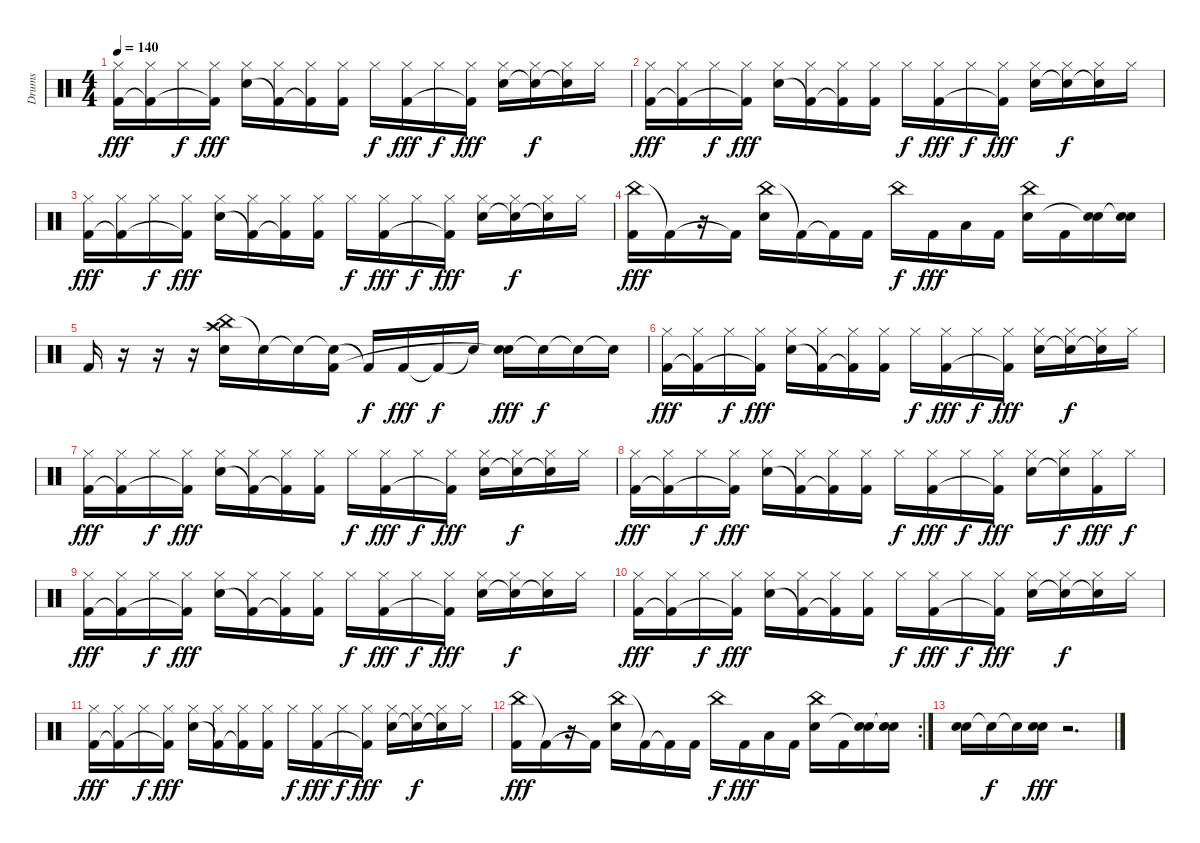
\track ("Drums" "Drums") {instrument percussion}
\staff {score}
\articulation defaults
\ts (4 4)
\tempo 140
\clef neutral
\ks c
("Hi-Hat (closed)" "Kick (hit) 2").16{dy fff} ("Hi-Hat (closed)" "Kick (hit) 2"{t}).16 "Hi-Hat (closed)".16{dy f} ("Hi-Hat (closed)" "Kick (hit) 2"{t}).16{dy fff} ("Hi-Hat (closed)" "Snare (hit) 2").16 ("Hi-Hat (closed)" "Kick (hit) 2"{t}).16 ("Hi-Hat (closed)" "Kick (hit) 2"{t}).16 ("Hi-Hat (closed)" "Kick (hit) 2").16 "Hi-Hat (closed)".16{dy f} ("Hi-Hat (closed)" "Kick (hit) 2").16{dy fff} "Hi-Hat (closed)".16{dy f} ("Hi-Hat (closed)" "Kick (hit) 2"{t}).16{dy fff} ("Hi-Hat (closed)" "Snare (hit) 2").16 ("Hi-Hat (closed)" "Snare (hit)"{t}).16{dy f} ("Hi-Hat (closed)" "Snare (hit)"{t}).16 "Hi-Hat (closed)".16 |
("Hi-Hat (closed)" "Kick (hit) 2").16{dy fff} ("Hi-Hat (closed)" "Kick (hit) 2"{t}).16 "Hi-Hat (closed)".16{dy f} ("Hi-Hat (closed)" "Kick (hit) 2"{t}).16{dy fff} ("Hi-Hat (closed)" "Snare (hit) 2").16 ("Hi-Hat (closed)" "Kick (hit) 2"{t}).16 ("Hi-Hat (closed)" "Kick (hit) 2"{t}).16 ("Hi-Hat (closed)" "Kick (hit) 2").16 "Hi-Hat (closed)".16{dy f} ("Hi-Hat (closed)" "Kick (hit) 2").16{dy fff} "Hi-Hat (closed)".16{dy f} ("Hi-Hat (closed)" "Kick (hit) 2"{t}).16{dy fff} ("Hi-Hat (closed)" "Snare (hit) 2").16 ("Hi-Hat (closed)" "Snare (hit)"{t}).16{dy f} ("Hi-Hat (closed)" "Snare (hit)"{t}).16 "Hi-Hat (closed)".16 |
("Hi-Hat (closed)" "Kick (hit) 2").16{dy fff} ("Hi-Hat (closed)" "Kick (hit) 2"{t}).16 "Hi-Hat (closed)".16{dy f} ("Hi-Hat (closed)" "Kick (hit) 2"{t}).16{dy fff} ("Hi-Hat (closed)" "Snare (hit) 2").16 ("Hi-Hat (closed)" "Kick (hit) 2"{t}).16 ("Hi-Hat (closed)" "Kick (hit) 2"{t}).16 ("Hi-Hat (closed)" "Kick (hit) 2").16 "Hi-Hat (closed)".16{dy f} ("Hi-Hat (closed)" "Kick (hit) 2").16{dy fff} "Hi-Hat (closed)".16{dy f} ("Hi-Hat (closed)" "Kick (hit) 2"{t}).16{dy fff} ("Hi-Hat (closed)" "Snare (hit) 2").16 ("Hi-Hat (closed)" "Snare (hit)"{t}).16{dy f} ("Hi-Hat (closed)" "Snare (hit)"{t}).16 "Hi-Hat (closed)".16 |
("China (hit)" "Kick (hit) 2").16{dy fff} "Kick (hit) 2"{t}.16 r.16 "Kick (hit) 2"{t}.16 ("China (hit)" "Snare (hit) 2").16 "Kick (hit) 2"{t}.16 "Kick (hit) 2"{t}.16 "Kick (hit) 2".16 "China (hit)".16{dy f} "Kick (hit) 2".16{dy fff} "Low Tom (hit)".16 "Kick (hit) 2".16 ("China (hit)" "Snare (hit) 2").16 "Kick (hit) 2".16 ("Snare (hit) 2" "Snare (hit)"{t}).16 ("Snare (hit) 2" "Snare (hit)"{t}).16 |
"Kick (hit) 2".16 r.16 r.16 r.16 ("China (hit)" "Crash high (hit)" "Snare (hit) 2").16 "Snare (hit)"{t}.16 "Snare (hit)"{t}.16 ("Snare (hit)"{t} "Kick (hit) 2").16 "Kick (hit) 2"{t}.16{dy f} "Kick (hit) 2".16{dy fff} "Kick (hit) 2"{t}.16{dy f} "Snare (hit)"{t}.16 ("Snare (hit) 2" "Snare (hit)"{t}).16{dy fff} "Snare (hit)"{t}.16{dy f} "Snare (hit)"{t}.16 "Snare (hit)"{t}.16 |
("Hi-Hat (closed)" "Kick (hit) 2").16{dy fff} ("Hi-Hat (closed)" "Kick (hit) 2"{t}).16 "Hi-Hat (closed)".16{dy f} ("Hi-Hat (closed)" "Kick (hit) 2"{t}).16{dy fff} ("Hi-Hat (closed)" "Snare (hit) 2").16 ("Hi-Hat (closed)" "Kick (hit) 2"{t}).16 ("Hi-Hat (closed)" "Kick (hit) 2"{t}).16 ("Hi-Hat (closed)" "Kick (hit) 2").16 "Hi-Hat (closed)".16{dy f} ("Hi-Hat (closed)" "Kick (hit) 2").16{dy fff} "Hi-Hat (closed)".16{dy f} ("Hi-Hat (closed)" "Kick (hit) 2"{t}).16{dy fff} ("Hi-Hat (closed)" "Snare (hit) 2").16 ("Hi-Hat (closed)" "Snare (hit)"{t}).16{dy f} ("Hi-Hat (closed)" "Snare (hit)"{t}).16 "Hi-Hat (closed)".16 |
("Hi-Hat (closed)" "Kick (hit) 2").16{dy fff} ("Hi-Hat (closed)" "Kick (hit) 2"{t}).16 "Hi-Hat (closed)".16{dy f} ("Hi-Hat (closed)" "Kick (hit) 2"{t}).16{dy fff} ("Hi-Hat (closed)" "Snare (hit) 2").16 ("Hi-Hat (closed)" "Kick (hit) 2"{t}).16 ("Hi-Hat (closed)" "Kick (hit) 2"{t}).16 ("Hi-Hat (closed)" "Kick (hit) 2").16 "Hi-Hat (closed)".16{dy f} ("Hi-Hat (closed)" "Kick (hit) 2").16{dy fff} "Hi-Hat (closed)".16{dy f} ("Hi-Hat (closed)" "Kick (hit) 2"{t}).16{dy fff} ("Hi-Hat (closed)" "Snare (hit) 2").16 ("Hi-Hat (closed)" "Snare (hit)"{t}).16{dy f} ("Hi-Hat (closed)" "Snare (hit)"{t}).16 "Hi-Hat (closed)".16 |
("Hi-Hat (closed)" "Kick (hit) 2").16{dy fff} ("Hi-Hat (closed)" "Kick (hit) 2"{t}).16 "Hi-Hat (closed)".16{dy f} ("Hi-Hat (closed)" "Kick (hit) 2"{t}).16{dy fff} ("Hi-Hat (closed)" "Snare (hit) 2").16 ("Hi-Hat (closed)" "Kick (hit) 2"{t}).16 ("Hi-Hat (closed)" "Kick (hit) 2"{t}).16 ("Hi-Hat (closed)" "Kick (hit) 2").16 "Hi-Hat (closed)".16{dy f} ("Hi-Hat (closed)" "Kick (hit) 2").16{dy fff} "Hi-Hat (closed)".16{dy f} ("Hi-Hat (closed)" "Kick (hit) 2"{t}).16{dy fff} ("Hi-Hat (closed)" "Snare (hit) 2").16 ("Hi-Hat (closed)" "Snare (hit)"{t}).16{dy f} ("Hi-Hat (closed)" "Kick (hit) 2").16{dy fff} "Hi-Hat (closed)".16{dy f} |
("Hi-Hat (closed)" "Kick (hit) 2").16{dy fff} ("Hi-Hat (closed)" "Kick (hit) 2"{t}).16 "Hi-Hat (closed)".16{dy f} ("Hi-Hat (closed)" "Kick (hit) 2"{t}).16{dy fff} ("Hi-Hat (closed)" "Snare (hit) 2").16 ("Hi-Hat (closed)" "Kick (hit) 2"{t}).16 ("Hi-Hat (closed)" "Kick (hit) 2"{t}).16 ("Hi-Hat (closed)" "Kick (hit) 2").16 "Hi-Hat (closed)".16{dy f} ("Hi-Hat (closed)" "Kick (hit) 2").16{dy fff} "Hi-Hat (closed)".16{dy f} ("Hi-Hat (closed)" "Kick (hit) 2"{t}).16{dy fff} ("Hi-Hat (closed)" "Snare (hit) 2").16 ("Hi-Hat (closed)" "Snare (hit)"{t}).16{dy f} ("Hi-Hat (closed)" "Snare (hit)"{t}).16 "Hi-Hat (closed)".16 |
("Hi-Hat (closed)" "Kick (hit) 2").16{dy fff} ("Hi-Hat (closed)" "Kick (hit) 2"{t}).16 "Hi-Hat (closed)".16{dy f} ("Hi-Hat (closed)" "Kick (hit) 2"{t}).16{dy fff} ("Hi-Hat (closed)" "Snare (hit) 2").16 ("Hi-Hat (closed)" "Kick (hit) 2"{t}).16 ("Hi-Hat (closed)" "Kick (hit) 2"{t}).16 ("Hi-Hat (closed)" "Kick (hit) 2").16 "Hi-Hat (closed)".16{dy f} ("Hi-Hat (closed)" "Kick (hit) 2").16{dy fff} "Hi-Hat (closed)".16{dy f} ("Hi-Hat (closed)" "Kick (hit) 2"{t}).16{dy fff} ("Hi-Hat (closed)" "Snare (hit) 2").16 ("Hi-Hat (closed)" "Snare (hit)"{t}).16{dy f} ("Hi-Hat (closed)" "Snare (hit)"{t}).16 "Hi-Hat (closed)".16 |
("Hi-Hat (closed)" "Kick (hit) 2").16{dy fff} ("Hi-Hat (closed)" "Kick (hit) 2"{t}).16 "Hi-Hat (closed)".16{dy f} ("Hi-Hat (closed)" "Kick (hit) 2"{t}).16{dy fff} ("Hi-Hat (closed)" "Snare (hit) 2").16 ("Hi-Hat (closed)" "Kick (hit) 2"{t}).16 ("Hi-Hat (closed)" "Kick (hit) 2"{t}).16 ("Hi-Hat (closed)" "Kick (hit) 2").16 "Hi-Hat (closed)".16{dy f} ("Hi-Hat (closed)" "Kick (hit) 2").16{dy fff} "Hi-Hat (closed)".16{dy f} ("Hi-Hat (closed)" "Kick (hit) 2"{t}).16{dy fff} ("Hi-Hat (closed)" "Snare (hit) 2").16 ("Hi-Hat (closed)" "Snare (hit)"{t}).16{dy f} ("Hi-Hat (closed)" "Snare (hit)"{t}).16 "Hi-Hat (closed)".16 |
\rc 2
("China (hit)" "Kick (hit) 2").16{dy fff} "Kick (hit) 2"{t}.16 r.16 "Kick (hit) 2"{t}.16 ("China (hit)" "Snare (hit) 2").16 "Kick (hit) 2"{t}.16 "Kick (hit) 2"{t}.16 "Kick (hit) 2".16 "China (hit)".16{dy f} "Kick (hit) 2".16{dy fff} "Low Tom (hit)".16 "Kick (hit) 2".16 ("China (hit)" "Snare (hit) 2").16 "Kick (hit) 2".16 ("Snare (hit) 2" "Snare (hit)"{t}).16 ("Snare (hit) 2" "Snare (hit)"{t}).16 |
("Snare (hit) 2" "Electric Snare (hit)").16 "Snare (hit)"{t}.16{dy f} "Snare (hit)"{t}.16 ("Snare (hit) 2" "Electric Snare (hit)").16{dy fff} r.2{d}
